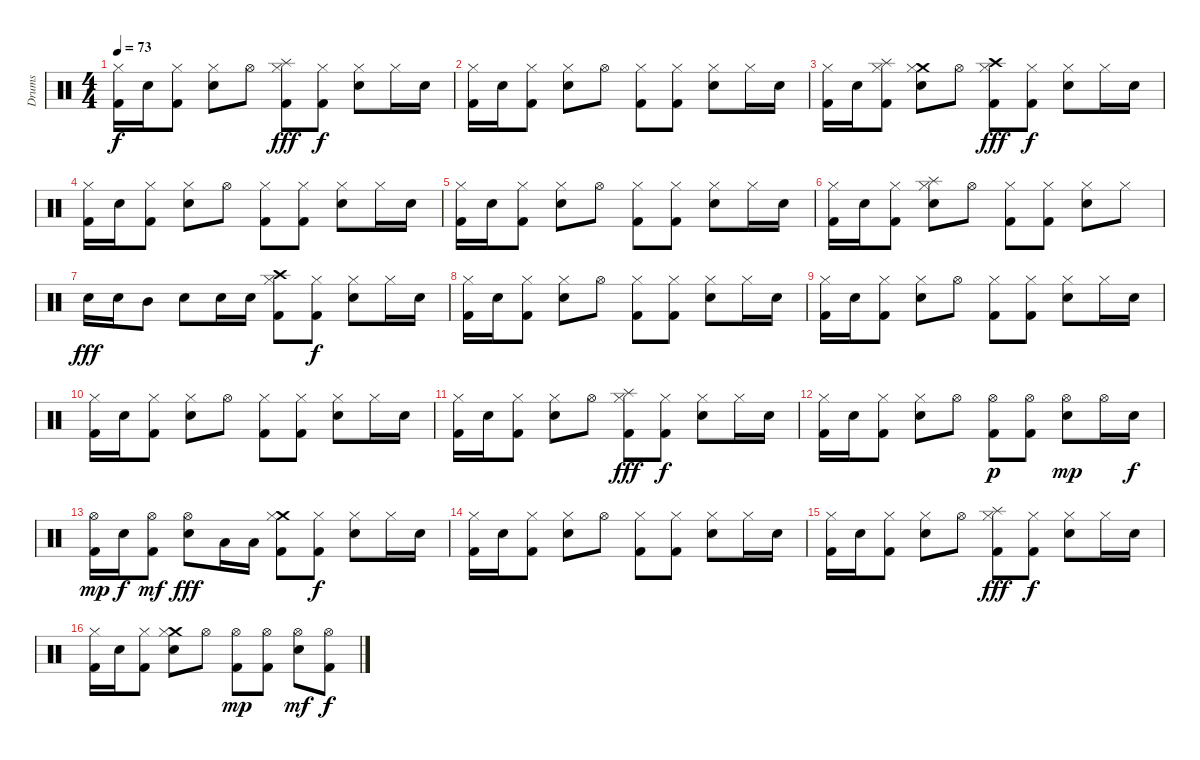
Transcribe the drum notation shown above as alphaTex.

\track ("Drums" "Drums") {instrument percussion}
\staff {score}
\articulation defaults
\ts (4 4)
\tempo 73
\clef neutral
\ks c
("Hi-Hat (closed)" "Kick (hit) 2").16{dy f} "Electric Snare (hit)".16 ("Hi-Hat (closed)" "Kick (hit) 2").8 ("Hi-Hat (closed)" "Electric Snare (hit)").8 "Hi-Hat (open)".8 ("Splash (hit)" "Hi-Hat (closed)" "Kick (hit) 2").8{dy fff} ("Hi-Hat (closed)" "Kick (hit) 2").8{dy f} ("Hi-Hat (closed)" "Electric Snare (hit)").8 "Hi-Hat (closed)".16 "Electric Snare (hit)".16 |
("Hi-Hat (closed)" "Kick (hit) 2").16 "Electric Snare (hit)".16 ("Hi-Hat (closed)" "Kick (hit) 2").8 ("Hi-Hat (closed)" "Electric Snare (hit)").8 "Hi-Hat (open)".8 ("Hi-Hat (closed)" "Kick (hit) 2").8 ("Hi-Hat (closed)" "Kick (hit) 2").8 ("Hi-Hat (closed)" "Electric Snare (hit)").8 "Hi-Hat (closed)".16 "Electric Snare (hit)".16 |
("Hi-Hat (closed)" "Kick (hit) 2").16 "Electric Snare (hit)".16 ("Splash (hit)" "Hi-Hat (closed)" "Kick (hit) 2").8 ("Crash medium (hit)" "Hi-Hat (closed)" "Electric Snare (hit)").8 "Hi-Hat (open)".8 ("Crash high (hit)" "Hi-Hat (closed)" "Kick (hit) 2").8{dy fff} ("Hi-Hat (closed)" "Kick (hit) 2").8{dy f} ("Hi-Hat (closed)" "Electric Snare (hit)").8 "Hi-Hat (closed)".16 "Electric Snare (hit)".16 |
("Hi-Hat (closed)" "Kick (hit) 2").16 "Electric Snare (hit)".16 ("Hi-Hat (closed)" "Kick (hit) 2").8 ("Hi-Hat (closed)" "Electric Snare (hit)").8 "Hi-Hat (open)".8 ("Hi-Hat (closed)" "Kick (hit) 2").8 ("Hi-Hat (closed)" "Kick (hit) 2").8 ("Hi-Hat (closed)" "Electric Snare (hit)").8 "Hi-Hat (closed)".16 "Electric Snare (hit)".16 |
("Hi-Hat (closed)" "Kick (hit) 2").16 "Electric Snare (hit)".16 ("Hi-Hat (closed)" "Kick (hit) 2").8 ("Hi-Hat (closed)" "Electric Snare (hit)").8 "Hi-Hat (open)".8 ("Hi-Hat (closed)" "Kick (hit) 2").8 ("Hi-Hat (closed)" "Kick (hit) 2").8 ("Hi-Hat (closed)" "Electric Snare (hit)").8 "Hi-Hat (closed)".16 "Electric Snare (hit)".16 |
("Hi-Hat (closed)" "Kick (hit) 2").16 "Electric Snare (hit)".16 ("Hi-Hat (closed)" "Kick (hit) 2").8 ("Splash (hit)" "Hi-Hat (closed)" "Electric Snare (hit)").8 "Hi-Hat (open)".8 ("Hi-Hat (closed)" "Kick (hit) 2").8 ("Hi-Hat (closed)" "Kick (hit) 2").8 ("Hi-Hat (closed)" "Electric Snare (hit)").8 "Hi-Hat (closed)".8 |
"Electric Snare (hit)".16{dy fff} "Electric Snare (hit)".16 "Mid Tom (hit)".8 "Electric Snare (hit)".8 "Electric Snare (hit)".16 "Electric Snare (hit)".16 ("Crash high (hit)" "Hi-Hat (closed)" "Kick (hit) 2").8 ("Hi-Hat (closed)" "Kick (hit) 2").8{dy f} ("Hi-Hat (closed)" "Electric Snare (hit)").8 "Hi-Hat (closed)".16 "Electric Snare (hit)".16 |
("Hi-Hat (closed)" "Kick (hit) 2").16 "Electric Snare (hit)".16 ("Hi-Hat (closed)" "Kick (hit) 2").8 ("Hi-Hat (closed)" "Electric Snare (hit)").8 "Hi-Hat (open)".8 ("Hi-Hat (closed)" "Kick (hit) 2").8 ("Hi-Hat (closed)" "Kick (hit) 2").8 ("Hi-Hat (closed)" "Electric Snare (hit)").8 "Hi-Hat (closed)".16 "Electric Snare (hit)".16 |
("Hi-Hat (closed)" "Kick (hit) 2").16 "Electric Snare (hit)".16 ("Hi-Hat (closed)" "Kick (hit) 2").8 ("Hi-Hat (closed)" "Electric Snare (hit)").8 "Hi-Hat (open)".8 ("Hi-Hat (closed)" "Kick (hit) 2").8 ("Hi-Hat (closed)" "Kick (hit) 2").8 ("Hi-Hat (closed)" "Electric Snare (hit)").8 "Hi-Hat (closed)".16 "Electric Snare (hit)".16 |
("Hi-Hat (closed)" "Kick (hit) 2").16 "Electric Snare (hit)".16 ("Hi-Hat (closed)" "Kick (hit) 2").8 ("Hi-Hat (closed)" "Electric Snare (hit)").8 "Hi-Hat (open)".8 ("Hi-Hat (closed)" "Kick (hit) 2").8 ("Hi-Hat (closed)" "Kick (hit) 2").8 ("Hi-Hat (closed)" "Electric Snare (hit)").8 "Hi-Hat (closed)".16 "Electric Snare (hit)".16 |
("Hi-Hat (closed)" "Kick (hit) 2").16 "Electric Snare (hit)".16 ("Hi-Hat (closed)" "Kick (hit) 2").8 ("Hi-Hat (closed)" "Electric Snare (hit)").8 "Hi-Hat (open)".8 ("Splash (hit)" "Hi-Hat (closed)" "Kick (hit) 2").8{dy fff} ("Hi-Hat (closed)" "Kick (hit) 2").8{dy f} ("Hi-Hat (closed)" "Electric Snare (hit)").8 "Hi-Hat (closed)".16 "Electric Snare (hit)".16 |
("Hi-Hat (closed)" "Kick (hit) 2").16 "Electric Snare (hit)".16 ("Hi-Hat (closed)" "Kick (hit) 2").8 ("Hi-Hat (closed)" "Electric Snare (hit)").8 "Hi-Hat (open)".8 ("Hi-Hat (open)" "Kick (hit) 2").8{dy p} ("Hi-Hat (open)" "Kick (hit) 2").8 ("Hi-Hat (open)" "Electric Snare (hit)").8{dy mp} "Hi-Hat (open)".16 "Electric Snare (hit)".16{dy f} |
("Hi-Hat (open)" "Kick (hit) 2").16{dy mp} "Electric Snare (hit)".16{dy f} ("Hi-Hat (open)" "Kick (hit) 2").8{dy mf} ("Hi-Hat (open)" "Electric Snare (hit)").8{dy fff} "Low Tom (hit)".16 "Low Tom (hit)".16 ("Crash medium (hit)" "Hi-Hat (closed)" "Kick (hit) 2").8 ("Hi-Hat (closed)" "Kick (hit) 2").8{dy f} ("Hi-Hat (closed)" "Electric Snare (hit)").8 "Hi-Hat (closed)".16 "Electric Snare (hit)".16 |
("Hi-Hat (closed)" "Kick (hit) 2").16 "Electric Snare (hit)".16 ("Hi-Hat (closed)" "Kick (hit) 2").8 ("Hi-Hat (closed)" "Electric Snare (hit)").8 "Hi-Hat (open)".8 ("Hi-Hat (closed)" "Kick (hit) 2").8 ("Hi-Hat (closed)" "Kick (hit) 2").8 ("Hi-Hat (closed)" "Electric Snare (hit)").8 "Hi-Hat (closed)".16 "Electric Snare (hit)".16 |
("Hi-Hat (closed)" "Kick (hit) 2").16 "Electric Snare (hit)".16 ("Hi-Hat (closed)" "Kick (hit) 2").8 ("Hi-Hat (closed)" "Electric Snare (hit)").8 "Hi-Hat (open)".8 ("Splash (hit)" "Hi-Hat (closed)" "Kick (hit) 2").8{dy fff} ("Hi-Hat (closed)" "Kick (hit) 2").8{dy f} ("Hi-Hat (closed)" "Electric Snare (hit)").8 "Hi-Hat (closed)".16 "Electric Snare (hit)".16 |
("Hi-Hat (closed)" "Kick (hit) 2").16 "Electric Snare (hit)".16 ("Hi-Hat (closed)" "Kick (hit) 2").8 ("Crash medium (hit)" "Hi-Hat (closed)" "Electric Snare (hit)").8 "Hi-Hat (open)".8 ("Hi-Hat (open)" "Kick (hit) 2").8{dy mp} ("Hi-Hat (open)" "Kick (hit) 2").8 ("Hi-Hat (open)" "Electric Snare (hit)").8{dy mf} ("Hi-Hat (open)" "Kick (hit) 2").8{dy f}
